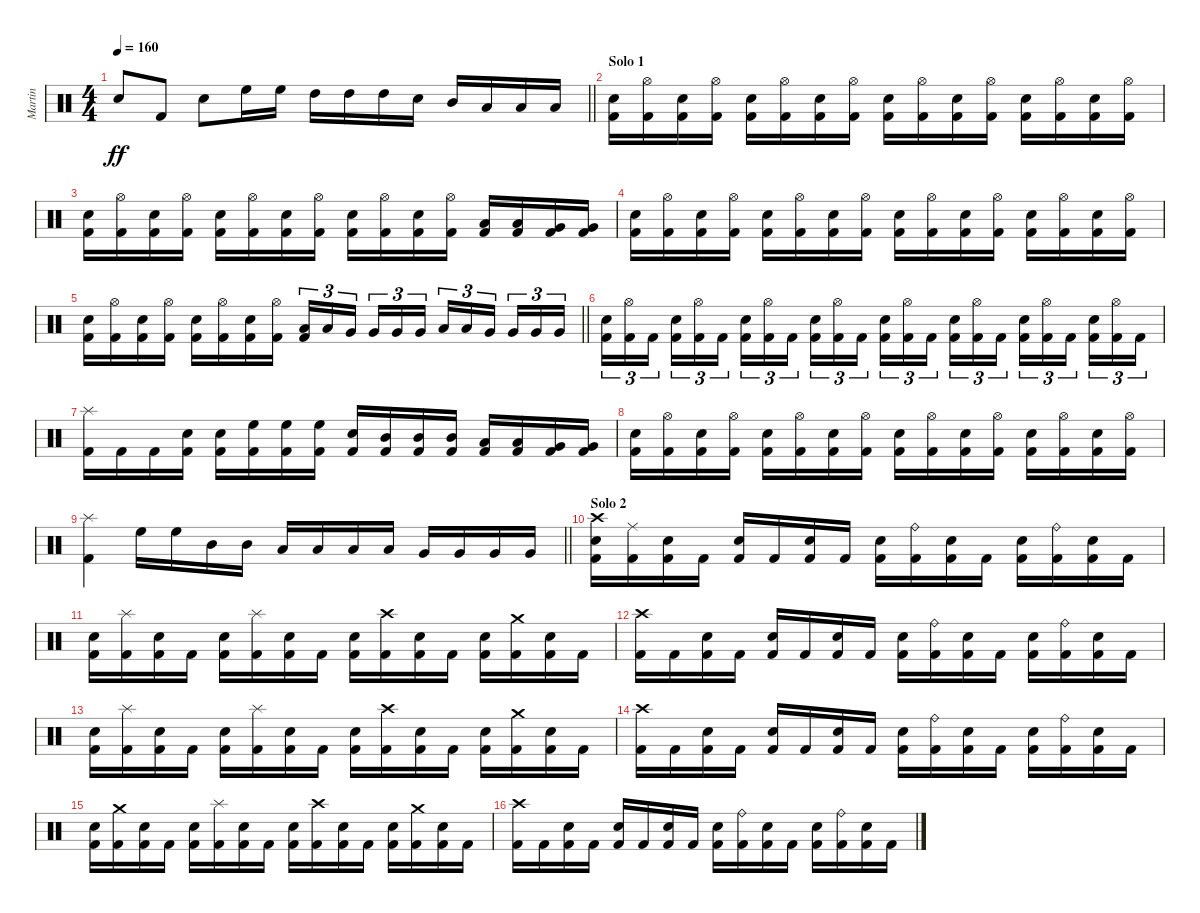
\track ("Martin" "Martin") {instrument percussion}
\staff {score}
\articulation defaults
\ts (4 4)
\tempo 160
\clef neutral
\barLineRight lightlight
\ks c "Electric Snare (hit)".8{dy ff} "Kick (hit) 2".8 "Electric Snare (hit)".8 "High Floor Tom (hit)".16 "High Floor Tom (hit)".16 "High Tom (hit)".16 "High Tom (hit)".16 "High Tom (hit)".16 "Electric Snare (hit)".16 "Mid Tom (hit)".16 "Low Tom (hit)".16 "Low Tom (hit)".16 "Low Tom (hit)".16
|
\section ("" "Solo 1")
("Electric Snare (hit)" "Kick (hit) 2").16 ("Hi-Hat (open)" "Kick (hit) 2").16 ("Electric Snare (hit)" "Kick (hit) 2").16 ("Hi-Hat (open)" "Kick (hit) 2").16 ("Electric Snare (hit)" "Kick (hit) 2").16 ("Hi-Hat (open)" "Kick (hit) 2").16 ("Electric Snare (hit)" "Kick (hit) 2").16 ("Hi-Hat (open)" "Kick (hit) 2").16 ("Electric Snare (hit)" "Kick (hit) 2").16 ("Hi-Hat (open)" "Kick (hit) 2").16 ("Electric Snare (hit)" "Kick (hit) 2").16 ("Hi-Hat (open)" "Kick (hit) 2").16 ("Electric Snare (hit)" "Kick (hit) 2").16 ("Hi-Hat (open)" "Kick (hit) 2").16 ("Electric Snare (hit)" "Kick (hit) 2").16 ("Hi-Hat (open)" "Kick (hit) 2").16 |
("Electric Snare (hit)" "Kick (hit) 2").16 ("Hi-Hat (open)" "Kick (hit) 2").16 ("Electric Snare (hit)" "Kick (hit) 2").16 ("Hi-Hat (open)" "Kick (hit) 2").16 ("Electric Snare (hit)" "Kick (hit) 2").16 ("Hi-Hat (open)" "Kick (hit) 2").16 ("Electric Snare (hit)" "Kick (hit) 2").16 ("Hi-Hat (open)" "Kick (hit) 2").16 ("Electric Snare (hit)" "Kick (hit) 2").16 ("Hi-Hat (open)" "Kick (hit) 2").16 ("Electric Snare (hit)" "Kick (hit) 2").16 ("Hi-Hat (open)" "Kick (hit) 2").16 ("Low Tom (hit)" "Kick (hit) 2").16 ("Low Tom (hit)" "Kick (hit) 2").16 ("Very Low Tom (hit)" "Kick (hit) 2").16 ("Very Low Tom (hit)" "Kick (hit) 2").16 |
("Electric Snare (hit)" "Kick (hit) 2").16 ("Hi-Hat (open)" "Kick (hit) 2").16 ("Electric Snare (hit)" "Kick (hit) 2").16 ("Hi-Hat (open)" "Kick (hit) 2").16 ("Electric Snare (hit)" "Kick (hit) 2").16 ("Hi-Hat (open)" "Kick (hit) 2").16 ("Electric Snare (hit)" "Kick (hit) 2").16 ("Hi-Hat (open)" "Kick (hit) 2").16 ("Electric Snare (hit)" "Kick (hit) 2").16 ("Hi-Hat (open)" "Kick (hit) 2").16 ("Electric Snare (hit)" "Kick (hit) 2").16 ("Hi-Hat (open)" "Kick (hit) 2").16 ("Electric Snare (hit)" "Kick (hit) 2").16 ("Hi-Hat (open)" "Kick (hit) 2").16 ("Electric Snare (hit)" "Kick (hit) 2").16 ("Hi-Hat (open)" "Kick (hit) 2").16 |
\barLineRight lightlight
("Electric Snare (hit)" "Kick (hit) 2").16 ("Hi-Hat (open)" "Kick (hit) 2").16 ("Electric Snare (hit)" "Kick (hit) 2").16 ("Hi-Hat (open)" "Kick (hit) 2").16 ("Electric Snare (hit)" "Kick (hit) 2").16 ("Hi-Hat (open)" "Kick (hit) 2").16 ("Electric Snare (hit)" "Kick (hit) 2").16 ("Hi-Hat (open)" "Kick (hit) 2").16 ("Low Tom (hit)" "Kick (hit) 2").16{tu (3 2)} "Low Tom (hit)".16{tu (3 2)} "Very Low Tom (hit)".16{tu (3 2) beam splitsecondary} "Very Low Tom (hit)".16{tu (3 2)} "Very Low Tom (hit)".16{tu (3 2)} "Very Low Tom (hit)".16{tu (3 2)} "Low Tom (hit)".16{tu (3 2)} "Low Tom (hit)".16{tu (3 2)} "Very Low Tom (hit)".16{tu (3 2) beam splitsecondary} "Very Low Tom (hit)".16{tu (3 2)} "Very Low Tom (hit)".16{tu (3 2)} "Very Low Tom (hit)".16{tu (3 2)} |
("Electric Snare (hit)" "Kick (hit) 2").16{tu (3 2)} ("Hi-Hat (open)" "Kick (hit) 2").16{tu (3 2)} "Kick (hit) 2".16{tu (3 2) beam splitsecondary} ("Electric Snare (hit)" "Kick (hit) 2").16{tu (3 2)} ("Hi-Hat (open)" "Kick (hit) 2").16{tu (3 2)} "Kick (hit) 2".16{tu (3 2)} ("Electric Snare (hit)" "Kick (hit) 2").16{tu (3 2)} ("Hi-Hat (open)" "Kick (hit) 2").16{tu (3 2)} "Kick (hit) 2".16{tu (3 2) beam splitsecondary} ("Electric Snare (hit)" "Kick (hit) 2").16{tu (3 2)} ("Hi-Hat (open)" "Kick (hit) 2").16{tu (3 2)} "Kick (hit) 2".16{tu (3 2)} ("Electric Snare (hit)" "Kick (hit) 2").16{tu (3 2)} ("Hi-Hat (open)" "Kick (hit) 2").16{tu (3 2)} "Kick (hit) 2".16{tu (3 2) beam splitsecondary} ("Electric Snare (hit)" "Kick (hit) 2").16{tu (3 2)} ("Hi-Hat (open)" "Kick (hit) 2").16{tu (3 2)} "Kick (hit) 2".16{tu (3 2)} ("Electric Snare (hit)" "Kick (hit) 2").16{tu (3 2)} ("Hi-Hat (open)" "Kick (hit) 2").16{tu (3 2)} "Kick (hit) 2".16{tu (3 2) beam splitsecondary} ("Electric Snare (hit)" "Kick (hit) 2").16{tu (3 2)} ("Hi-Hat (open)" "Kick (hit) 2").16{tu (3 2)} "Kick (hit) 2".16{tu (3 2)} |
("Splash (hit)" "Kick (hit) 2").16 "Kick (hit) 2".16 "Kick (hit) 2".16 ("Electric Snare (hit)" "Kick (hit) 2").16 ("Electric Snare (hit)" "Kick (hit) 2").16 ("High Floor Tom (hit)" "Kick (hit) 2").16 ("High Floor Tom (hit)" "Kick (hit) 2").16 ("High Floor Tom (hit)" "Kick (hit) 2").16 ("Electric Snare (hit)" "Kick (hit) 2").16 ("Mid Tom (hit)" "Kick (hit) 2").16 ("Mid Tom (hit)" "Kick (hit) 2").16 ("Mid Tom (hit)" "Kick (hit) 2").16 ("Low Tom (hit)" "Kick (hit) 2").16 ("Low Tom (hit)" "Kick (hit) 2").16 ("Very Low Tom (hit)" "Kick (hit) 2").16 ("Very Low Tom (hit)" "Kick (hit) 2").16 |
("Electric Snare (hit)" "Kick (hit) 2").16 ("Hi-Hat (open)" "Kick (hit) 2").16 ("Electric Snare (hit)" "Kick (hit) 2").16 ("Hi-Hat (open)" "Kick (hit) 2").16 ("Electric Snare (hit)" "Kick (hit) 2").16 ("Hi-Hat (open)" "Kick (hit) 2").16 ("Electric Snare (hit)" "Kick (hit) 2").16 ("Hi-Hat (open)" "Kick (hit) 2").16 ("Electric Snare (hit)" "Kick (hit) 2").16 ("Hi-Hat (open)" "Kick (hit) 2").16 ("Electric Snare (hit)" "Kick (hit) 2").16 ("Hi-Hat (open)" "Kick (hit) 2").16 ("Electric Snare (hit)" "Kick (hit) 2").16 ("Hi-Hat (open)" "Kick (hit) 2").16 ("Electric Snare (hit)" "Kick (hit) 2").16 ("Hi-Hat (open)" "Kick (hit) 2").16 |
\barLineRight lightlight
("Splash (hit)" "Kick (hit) 2").4 "High Floor Tom (hit)".16 "High Floor Tom (hit)".16 "Mid Tom (hit)".16 "Mid Tom (hit)".16 "Low Tom (hit)".16 "Low Tom (hit)".16 "Low Tom (hit)".16 "Low Tom (hit)".16 "Very Low Tom (hit)".16 "Very Low Tom (hit)".16 "Very Low Tom (hit)".16 "Very Low Tom (hit)".16 |
\section ("" "Solo 2")
("Crash high (hit)" "Electric Snare (hit)" "Kick (hit) 2").16 ("Ride (middle)" "Kick (hit) 2").16 ("Electric Snare (hit)" "Kick (hit) 2").16 "Kick (hit) 2".16 ("Electric Snare (hit)" "Kick (hit) 2").16 "Kick (hit) 2".16 ("Electric Snare (hit)" "Kick (hit) 2").16 "Kick (hit) 2".16 ("Electric Snare (hit)" "Kick (hit) 2").16 ("Ride (bell)" "Kick (hit) 2").16 ("Electric Snare (hit)" "Kick (hit) 2").16 "Kick (hit) 2".16 ("Electric Snare (hit)" "Kick (hit) 2").16 ("Ride (bell)" "Kick (hit) 2").16 ("Electric Snare (hit)" "Kick (hit) 2").16 "Kick (hit) 2".16 |
("Electric Snare (hit)" "Kick (hit) 2").16 ("Splash (hit)" "Kick (hit) 2").16 ("Electric Snare (hit)" "Kick (hit) 2").16 "Kick (hit) 2".16 ("Electric Snare (hit)" "Kick (hit) 2").16 ("Splash (hit)" "Kick (hit) 2").16 ("Electric Snare (hit)" "Kick (hit) 2").16 "Kick (hit) 2".16 ("Electric Snare (hit)" "Kick (hit) 2").16 ("Crash high (hit)" "Kick (hit) 2").16 ("Electric Snare (hit)" "Kick (hit) 2").16 "Kick (hit) 2".16 ("Electric Snare (hit)" "Kick (hit) 2").16 ("Crash medium (hit)" "Kick (hit) 2").16 ("Electric Snare (hit)" "Kick (hit) 2").16 "Kick (hit) 2".16 |
("Crash high (hit)" "Kick (hit) 2").16 "Kick (hit) 2".16 ("Electric Snare (hit)" "Kick (hit) 2").16 "Kick (hit) 2".16 ("Electric Snare (hit)" "Kick (hit) 2").16 "Kick (hit) 2".16 ("Electric Snare (hit)" "Kick (hit) 2").16 "Kick (hit) 2".16 ("Electric Snare (hit)" "Kick (hit) 2").16 ("Ride (bell)" "Kick (hit) 2").16 ("Electric Snare (hit)" "Kick (hit) 2").16 "Kick (hit) 2".16 ("Electric Snare (hit)" "Kick (hit) 2").16 ("Ride (bell)" "Kick (hit) 2").16 ("Electric Snare (hit)" "Kick (hit) 2").16 "Kick (hit) 2".16 |
("Electric Snare (hit)" "Kick (hit) 2").16 ("Splash (hit)" "Kick (hit) 2").16 ("Electric Snare (hit)" "Kick (hit) 2").16 "Kick (hit) 2".16 ("Electric Snare (hit)" "Kick (hit) 2").16 ("Splash (hit)" "Kick (hit) 2").16 ("Electric Snare (hit)" "Kick (hit) 2").16 "Kick (hit) 2".16 ("Electric Snare (hit)" "Kick (hit) 2").16 ("Crash high (hit)" "Kick (hit) 2").16 ("Electric Snare (hit)" "Kick (hit) 2").16 "Kick (hit) 2".16 ("Electric Snare (hit)" "Kick (hit) 2").16 ("Crash medium (hit)" "Kick (hit) 2").16 ("Electric Snare (hit)" "Kick (hit) 2").16 "Kick (hit) 2".16 |
("Crash high (hit)" "Kick (hit) 2").16 "Kick (hit) 2".16 ("Electric Snare (hit)" "Kick (hit) 2").16 "Kick (hit) 2".16 ("Electric Snare (hit)" "Kick (hit) 2").16 "Kick (hit) 2".16 ("Electric Snare (hit)" "Kick (hit) 2").16 "Kick (hit) 2".16 ("Electric Snare (hit)" "Kick (hit) 2").16 ("Ride (bell)" "Kick (hit) 2").16 ("Electric Snare (hit)" "Kick (hit) 2").16 "Kick (hit) 2".16 ("Electric Snare (hit)" "Kick (hit) 2").16 ("Ride (bell)" "Kick (hit) 2").16 ("Electric Snare (hit)" "Kick (hit) 2").16 "Kick (hit) 2".16 |
("Electric Snare (hit)" "Kick (hit) 2").16 ("Crash medium (hit)" "Kick (hit) 2").16 ("Electric Snare (hit)" "Kick (hit) 2").16 "Kick (hit) 2".16 ("Electric Snare (hit)" "Kick (hit) 2").16 ("Splash (hit)" "Kick (hit) 2").16 ("Electric Snare (hit)" "Kick (hit) 2").16 "Kick (hit) 2".16 ("Electric Snare (hit)" "Kick (hit) 2").16 ("Crash high (hit)" "Kick (hit) 2").16 ("Electric Snare (hit)" "Kick (hit) 2").16 "Kick (hit) 2".16 ("Electric Snare (hit)" "Kick (hit) 2").16 ("Crash medium (hit)" "Kick (hit) 2").16 ("Electric Snare (hit)" "Kick (hit) 2").16 "Kick (hit) 2".16 |
("Crash high (hit)" "Kick (hit) 2").16 "Kick (hit) 2".16 ("Electric Snare (hit)" "Kick (hit) 2").16 "Kick (hit) 2".16 ("Electric Snare (hit)" "Kick (hit) 2").16 "Kick (hit) 2".16 ("Electric Snare (hit)" "Kick (hit) 2").16 "Kick (hit) 2".16 ("Electric Snare (hit)" "Kick (hit) 2").16 ("Ride (bell)" "Kick (hit) 2").16 ("Electric Snare (hit)" "Kick (hit) 2").16 "Kick (hit) 2".16 ("Electric Snare (hit)" "Kick (hit) 2").16 ("Ride (bell)" "Kick (hit) 2").16 ("Electric Snare (hit)" "Kick (hit) 2").16 "Kick (hit) 2".16
